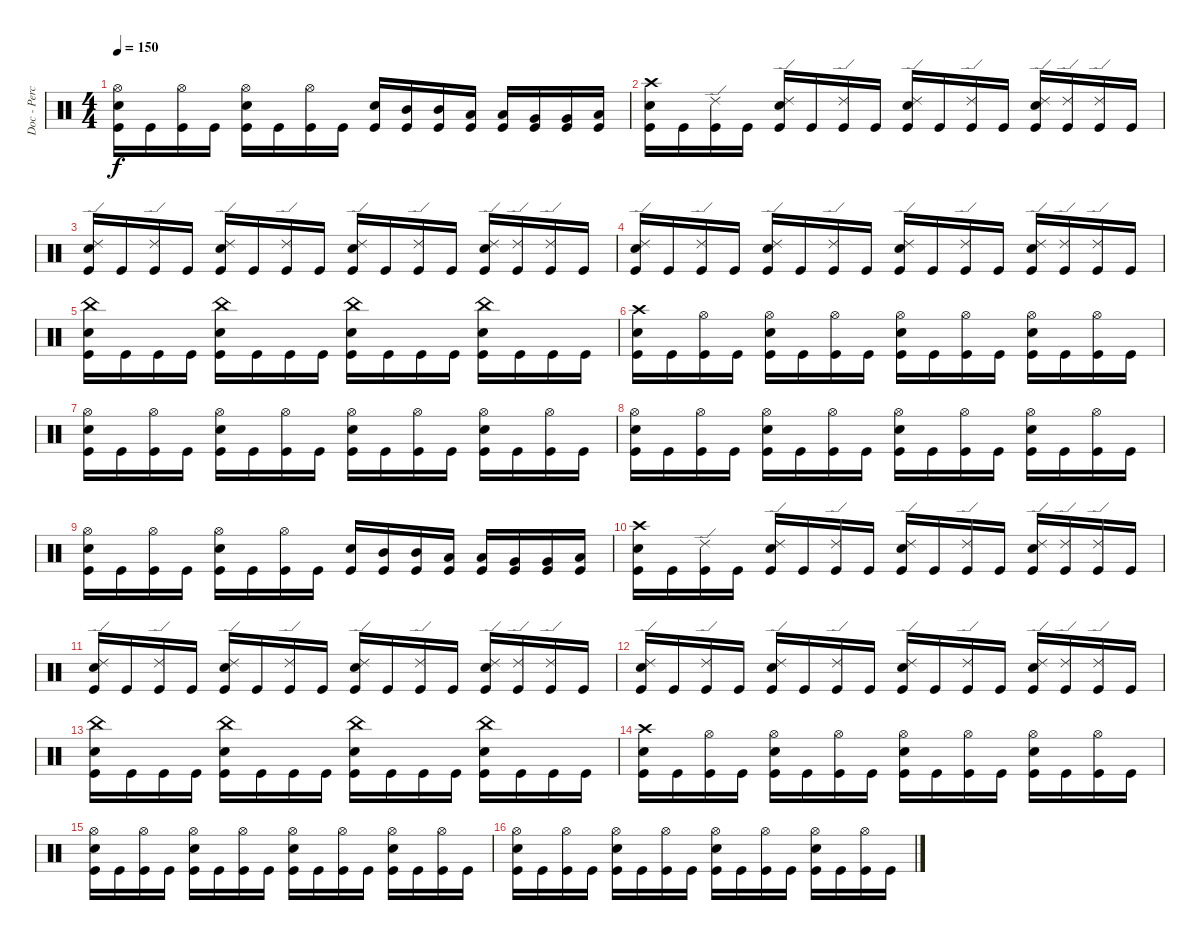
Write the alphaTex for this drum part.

\track ("Doc - Percussion" "Doc - Perc") {instrument percussion}
\staff {score}
\articulation defaults
\ts (4 4)
\tempo 150
\clef neutral
\ks c
("Hi-Hat (open)" "Electric Snare (hit)" "Kick (hit)").16{dy f} "Kick (hit)".16 ("Hi-Hat (open)" "Kick (hit)").16 "Kick (hit)".16 ("Hi-Hat (open)" "Electric Snare (hit)" "Kick (hit)").16 "Kick (hit)".16 ("Hi-Hat (open)" "Kick (hit)").16 "Kick (hit)".16 ("Electric Snare (hit)" "Kick (hit)").16 ("Mid Tom (hit)" "Kick (hit)").16 ("Mid Tom (hit)" "Kick (hit)").16 ("Low Tom (hit)" "Kick (hit)").16 ("Low Tom (hit)" "Kick (hit)").16 ("Very Low Tom (hit)" "Kick (hit)").16 ("Very Low Tom (hit)" "Kick (hit)").16 ("Low Floor Tom (hit)" "Kick (hit)").16 |
("Crash high (hit)" "Electric Snare (hit)" "Kick (hit)").16 "Kick (hit)".16 ("Ride (edge) 2" "Kick (hit)").16 "Kick (hit)".16 ("Ride (edge) 2" "Electric Snare (hit)" "Kick (hit)").16 "Kick (hit)".16 ("Ride (edge) 2" "Kick (hit)").16 "Kick (hit)".16 ("Ride (edge) 2" "Electric Snare (hit)" "Kick (hit)").16 "Kick (hit)".16 ("Ride (edge) 2" "Kick (hit)").16 "Kick (hit)".16 ("Ride (edge) 2" "Electric Snare (hit)" "Kick (hit)").16 ("Ride (edge) 2" "Kick (hit)").16 ("Ride (edge) 2" "Kick (hit)").16 "Kick (hit)".16 |
("Ride (edge) 2" "Electric Snare (hit)" "Kick (hit)").16 "Kick (hit)".16 ("Ride (edge) 2" "Kick (hit)").16 "Kick (hit)".16 ("Ride (edge) 2" "Electric Snare (hit)" "Kick (hit)").16 "Kick (hit)".16 ("Ride (edge) 2" "Kick (hit)").16 "Kick (hit)".16 ("Ride (edge) 2" "Electric Snare (hit)" "Kick (hit)").16 "Kick (hit)".16 ("Ride (edge) 2" "Kick (hit)").16 "Kick (hit)".16 ("Ride (edge) 2" "Electric Snare (hit)" "Kick (hit)").16 ("Ride (edge) 2" "Kick (hit)").16 ("Ride (edge) 2" "Kick (hit)").16 "Kick (hit)".16 |
("Ride (edge) 2" "Electric Snare (hit)" "Kick (hit)").16 "Kick (hit)".16 ("Ride (edge) 2" "Kick (hit)").16 "Kick (hit)".16 ("Ride (edge) 2" "Electric Snare (hit)" "Kick (hit)").16 "Kick (hit)".16 ("Ride (edge) 2" "Kick (hit)").16 "Kick (hit)".16 ("Ride (edge) 2" "Electric Snare (hit)" "Kick (hit)").16 "Kick (hit)".16 ("Ride (edge) 2" "Kick (hit)").16 "Kick (hit)".16 ("Ride (edge) 2" "Electric Snare (hit)" "Kick (hit)").16 ("Ride (edge) 2" "Kick (hit)").16 ("Ride (edge) 2" "Kick (hit)").16 "Kick (hit)".16 |
("China (hit)" "Electric Snare (hit)" "Kick (hit)").16 "Kick (hit)".16 "Kick (hit)".16 "Kick (hit)".16 ("China (hit)" "Electric Snare (hit)" "Kick (hit)").16 "Kick (hit)".16 "Kick (hit)".16 "Kick (hit)".16 ("China (hit)" "Electric Snare (hit)" "Kick (hit)").16 "Kick (hit)".16 "Kick (hit)".16 "Kick (hit)".16 ("China (hit)" "Electric Snare (hit)" "Kick (hit)").16 "Kick (hit)".16 "Kick (hit)".16 "Kick (hit)".16 |
("Crash high (hit)" "Electric Snare (hit)" "Kick (hit)").16 "Kick (hit)".16 ("Hi-Hat (open)" "Kick (hit)").16 "Kick (hit)".16 ("Hi-Hat (open)" "Electric Snare (hit)" "Kick (hit)").16 "Kick (hit)".16 ("Hi-Hat (open)" "Kick (hit)").16 "Kick (hit)".16 ("Hi-Hat (open)" "Electric Snare (hit)" "Kick (hit)").16 "Kick (hit)".16 ("Hi-Hat (open)" "Kick (hit)").16 "Kick (hit)".16 ("Hi-Hat (open)" "Electric Snare (hit)" "Kick (hit)").16 "Kick (hit)".16 ("Hi-Hat (open)" "Kick (hit)").16 "Kick (hit)".16 |
("Hi-Hat (open)" "Electric Snare (hit)" "Kick (hit)").16 "Kick (hit)".16 ("Hi-Hat (open)" "Kick (hit)").16 "Kick (hit)".16 ("Hi-Hat (open)" "Electric Snare (hit)" "Kick (hit)").16 "Kick (hit)".16 ("Hi-Hat (open)" "Kick (hit)").16 "Kick (hit)".16 ("Hi-Hat (open)" "Electric Snare (hit)" "Kick (hit)").16 "Kick (hit)".16 ("Hi-Hat (open)" "Kick (hit)").16 "Kick (hit)".16 ("Hi-Hat (open)" "Electric Snare (hit)" "Kick (hit)").16 "Kick (hit)".16 ("Hi-Hat (open)" "Kick (hit)").16 "Kick (hit)".16 |
("Hi-Hat (open)" "Electric Snare (hit)" "Kick (hit)").16 "Kick (hit)".16 ("Hi-Hat (open)" "Kick (hit)").16 "Kick (hit)".16 ("Hi-Hat (open)" "Electric Snare (hit)" "Kick (hit)").16 "Kick (hit)".16 ("Hi-Hat (open)" "Kick (hit)").16 "Kick (hit)".16 ("Hi-Hat (open)" "Electric Snare (hit)" "Kick (hit)").16 "Kick (hit)".16 ("Hi-Hat (open)" "Kick (hit)").16 "Kick (hit)".16 ("Hi-Hat (open)" "Electric Snare (hit)" "Kick (hit)").16 "Kick (hit)".16 ("Hi-Hat (open)" "Kick (hit)").16 "Kick (hit)".16 |
("Hi-Hat (open)" "Electric Snare (hit)" "Kick (hit)").16 "Kick (hit)".16 ("Hi-Hat (open)" "Kick (hit)").16 "Kick (hit)".16 ("Hi-Hat (open)" "Electric Snare (hit)" "Kick (hit)").16 "Kick (hit)".16 ("Hi-Hat (open)" "Kick (hit)").16 "Kick (hit)".16 ("Electric Snare (hit)" "Kick (hit)").16 ("Mid Tom (hit)" "Kick (hit)").16 ("Mid Tom (hit)" "Kick (hit)").16 ("Low Tom (hit)" "Kick (hit)").16 ("Low Tom (hit)" "Kick (hit)").16 ("Very Low Tom (hit)" "Kick (hit)").16 ("Very Low Tom (hit)" "Kick (hit)").16 ("Low Floor Tom (hit)" "Kick (hit)").16 |
("Crash high (hit)" "Electric Snare (hit)" "Kick (hit)").16 "Kick (hit)".16 ("Ride (edge) 2" "Kick (hit)").16 "Kick (hit)".16 ("Ride (edge) 2" "Electric Snare (hit)" "Kick (hit)").16 "Kick (hit)".16 ("Ride (edge) 2" "Kick (hit)").16 "Kick (hit)".16 ("Ride (edge) 2" "Electric Snare (hit)" "Kick (hit)").16 "Kick (hit)".16 ("Ride (edge) 2" "Kick (hit)").16 "Kick (hit)".16 ("Ride (edge) 2" "Electric Snare (hit)" "Kick (hit)").16 ("Ride (edge) 2" "Kick (hit)").16 ("Ride (edge) 2" "Kick (hit)").16 "Kick (hit)".16 |
("Ride (edge) 2" "Electric Snare (hit)" "Kick (hit)").16 "Kick (hit)".16 ("Ride (edge) 2" "Kick (hit)").16 "Kick (hit)".16 ("Ride (edge) 2" "Electric Snare (hit)" "Kick (hit)").16 "Kick (hit)".16 ("Ride (edge) 2" "Kick (hit)").16 "Kick (hit)".16 ("Ride (edge) 2" "Electric Snare (hit)" "Kick (hit)").16 "Kick (hit)".16 ("Ride (edge) 2" "Kick (hit)").16 "Kick (hit)".16 ("Ride (edge) 2" "Electric Snare (hit)" "Kick (hit)").16 ("Ride (edge) 2" "Kick (hit)").16 ("Ride (edge) 2" "Kick (hit)").16 "Kick (hit)".16 |
("Ride (edge) 2" "Electric Snare (hit)" "Kick (hit)").16 "Kick (hit)".16 ("Ride (edge) 2" "Kick (hit)").16 "Kick (hit)".16 ("Ride (edge) 2" "Electric Snare (hit)" "Kick (hit)").16 "Kick (hit)".16 ("Ride (edge) 2" "Kick (hit)").16 "Kick (hit)".16 ("Ride (edge) 2" "Electric Snare (hit)" "Kick (hit)").16 "Kick (hit)".16 ("Ride (edge) 2" "Kick (hit)").16 "Kick (hit)".16 ("Ride (edge) 2" "Electric Snare (hit)" "Kick (hit)").16 ("Ride (edge) 2" "Kick (hit)").16 ("Ride (edge) 2" "Kick (hit)").16 "Kick (hit)".16 |
("China (hit)" "Electric Snare (hit)" "Kick (hit)").16 "Kick (hit)".16 "Kick (hit)".16 "Kick (hit)".16 ("China (hit)" "Electric Snare (hit)" "Kick (hit)").16 "Kick (hit)".16 "Kick (hit)".16 "Kick (hit)".16 ("China (hit)" "Electric Snare (hit)" "Kick (hit)").16 "Kick (hit)".16 "Kick (hit)".16 "Kick (hit)".16 ("China (hit)" "Electric Snare (hit)" "Kick (hit)").16 "Kick (hit)".16 "Kick (hit)".16 "Kick (hit)".16 |
("Crash high (hit)" "Electric Snare (hit)" "Kick (hit)").16 "Kick (hit)".16 ("Hi-Hat (open)" "Kick (hit)").16 "Kick (hit)".16 ("Hi-Hat (open)" "Electric Snare (hit)" "Kick (hit)").16 "Kick (hit)".16 ("Hi-Hat (open)" "Kick (hit)").16 "Kick (hit)".16 ("Hi-Hat (open)" "Electric Snare (hit)" "Kick (hit)").16 "Kick (hit)".16 ("Hi-Hat (open)" "Kick (hit)").16 "Kick (hit)".16 ("Hi-Hat (open)" "Electric Snare (hit)" "Kick (hit)").16 "Kick (hit)".16 ("Hi-Hat (open)" "Kick (hit)").16 "Kick (hit)".16 |
("Hi-Hat (open)" "Electric Snare (hit)" "Kick (hit)").16 "Kick (hit)".16 ("Hi-Hat (open)" "Kick (hit)").16 "Kick (hit)".16 ("Hi-Hat (open)" "Electric Snare (hit)" "Kick (hit)").16 "Kick (hit)".16 ("Hi-Hat (open)" "Kick (hit)").16 "Kick (hit)".16 ("Hi-Hat (open)" "Electric Snare (hit)" "Kick (hit)").16 "Kick (hit)".16 ("Hi-Hat (open)" "Kick (hit)").16 "Kick (hit)".16 ("Hi-Hat (open)" "Electric Snare (hit)" "Kick (hit)").16 "Kick (hit)".16 ("Hi-Hat (open)" "Kick (hit)").16 "Kick (hit)".16 |
("Hi-Hat (open)" "Electric Snare (hit)" "Kick (hit)").16 "Kick (hit)".16 ("Hi-Hat (open)" "Kick (hit)").16 "Kick (hit)".16 ("Hi-Hat (open)" "Electric Snare (hit)" "Kick (hit)").16 "Kick (hit)".16 ("Hi-Hat (open)" "Kick (hit)").16 "Kick (hit)".16 ("Hi-Hat (open)" "Electric Snare (hit)" "Kick (hit)").16 "Kick (hit)".16 ("Hi-Hat (open)" "Kick (hit)").16 "Kick (hit)".16 ("Hi-Hat (open)" "Electric Snare (hit)" "Kick (hit)").16 "Kick (hit)".16 ("Hi-Hat (open)" "Kick (hit)").16 "Kick (hit)".16
